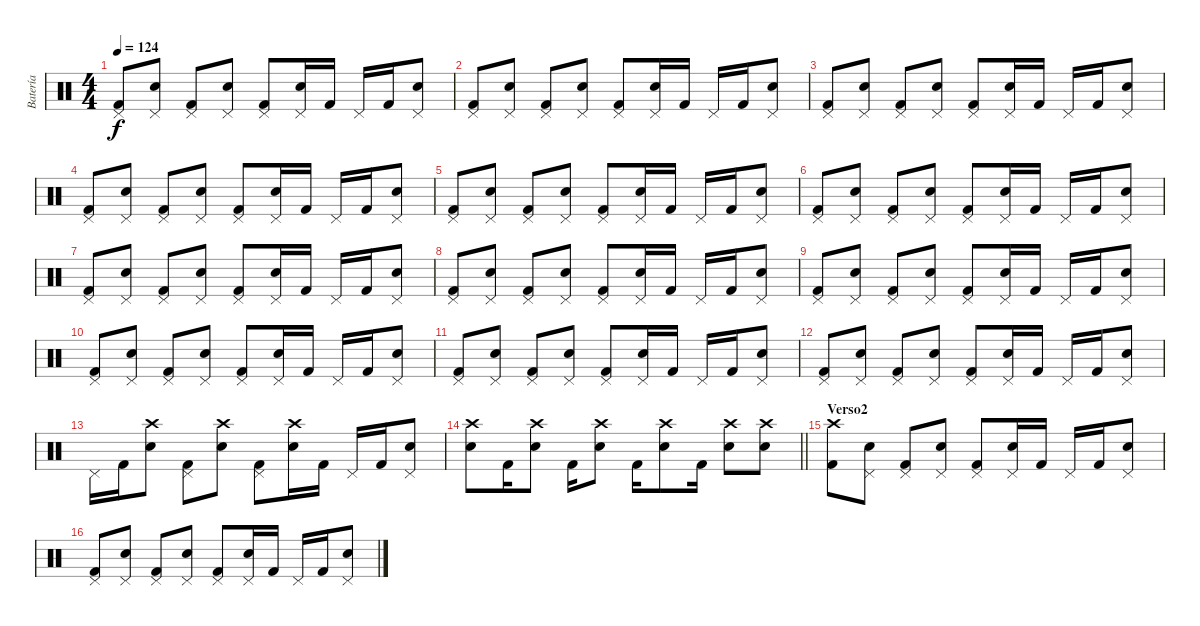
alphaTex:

\track ("Batería" "Batería") {instrument percussion}
\staff {score}
\articulation defaults
\ts (4 4)
\tempo 124
\clef neutral
\ks c
("Pedal Hi-Hat (hit)" "Kick (hit) 2").8{dy f} ("Pedal Hi-Hat (hit)" "Snare (hit) 2").8 ("Pedal Hi-Hat (hit)" "Kick (hit) 2").8 ("Pedal Hi-Hat (hit)" "Snare (hit) 2").8 ("Pedal Hi-Hat (hit)" "Kick (hit) 2").8 ("Pedal Hi-Hat (hit)" "Snare (hit) 2").16 "Kick (hit) 2".16 "Pedal Hi-Hat (hit)".16 "Kick (hit) 2".16 ("Pedal Hi-Hat (hit)" "Snare (hit) 2").8 |
("Pedal Hi-Hat (hit)" "Kick (hit) 2").8 ("Pedal Hi-Hat (hit)" "Snare (hit) 2").8 ("Pedal Hi-Hat (hit)" "Kick (hit) 2").8 ("Pedal Hi-Hat (hit)" "Snare (hit) 2").8 ("Pedal Hi-Hat (hit)" "Kick (hit) 2").8 ("Pedal Hi-Hat (hit)" "Snare (hit) 2").16 "Kick (hit) 2".16 "Pedal Hi-Hat (hit)".16 "Kick (hit) 2".16 ("Pedal Hi-Hat (hit)" "Snare (hit) 2").8 |
("Pedal Hi-Hat (hit)" "Kick (hit) 2").8 ("Pedal Hi-Hat (hit)" "Snare (hit) 2").8 ("Pedal Hi-Hat (hit)" "Kick (hit) 2").8 ("Pedal Hi-Hat (hit)" "Snare (hit) 2").8 ("Pedal Hi-Hat (hit)" "Kick (hit) 2").8 ("Pedal Hi-Hat (hit)" "Snare (hit) 2").16 "Kick (hit) 2".16 "Pedal Hi-Hat (hit)".16 "Kick (hit) 2".16 ("Pedal Hi-Hat (hit)" "Snare (hit) 2").8 |
("Pedal Hi-Hat (hit)" "Kick (hit) 2").8 ("Pedal Hi-Hat (hit)" "Snare (hit) 2").8 ("Pedal Hi-Hat (hit)" "Kick (hit) 2").8 ("Pedal Hi-Hat (hit)" "Snare (hit) 2").8 ("Pedal Hi-Hat (hit)" "Kick (hit) 2").8 ("Pedal Hi-Hat (hit)" "Snare (hit) 2").16 "Kick (hit) 2".16 "Pedal Hi-Hat (hit)".16 "Kick (hit) 2".16 ("Pedal Hi-Hat (hit)" "Snare (hit) 2").8 |
("Pedal Hi-Hat (hit)" "Kick (hit) 2").8 ("Pedal Hi-Hat (hit)" "Snare (hit) 2").8 ("Pedal Hi-Hat (hit)" "Kick (hit) 2").8 ("Pedal Hi-Hat (hit)" "Snare (hit) 2").8 ("Pedal Hi-Hat (hit)" "Kick (hit) 2").8 ("Pedal Hi-Hat (hit)" "Snare (hit) 2").16 "Kick (hit) 2".16 "Pedal Hi-Hat (hit)".16 "Kick (hit) 2".16 ("Pedal Hi-Hat (hit)" "Snare (hit) 2").8 |
("Pedal Hi-Hat (hit)" "Kick (hit) 2").8 ("Pedal Hi-Hat (hit)" "Snare (hit) 2").8 ("Pedal Hi-Hat (hit)" "Kick (hit) 2").8 ("Pedal Hi-Hat (hit)" "Snare (hit) 2").8 ("Pedal Hi-Hat (hit)" "Kick (hit) 2").8 ("Pedal Hi-Hat (hit)" "Snare (hit) 2").16 "Kick (hit) 2".16 "Pedal Hi-Hat (hit)".16 "Kick (hit) 2".16 ("Pedal Hi-Hat (hit)" "Snare (hit) 2").8 |
("Pedal Hi-Hat (hit)" "Kick (hit) 2").8 ("Pedal Hi-Hat (hit)" "Snare (hit) 2").8 ("Pedal Hi-Hat (hit)" "Kick (hit) 2").8 ("Pedal Hi-Hat (hit)" "Snare (hit) 2").8 ("Pedal Hi-Hat (hit)" "Kick (hit) 2").8 ("Pedal Hi-Hat (hit)" "Snare (hit) 2").16 "Kick (hit) 2".16 "Pedal Hi-Hat (hit)".16 "Kick (hit) 2".16 ("Pedal Hi-Hat (hit)" "Snare (hit) 2").8 |
("Pedal Hi-Hat (hit)" "Kick (hit) 2").8 ("Pedal Hi-Hat (hit)" "Snare (hit) 2").8 ("Pedal Hi-Hat (hit)" "Kick (hit) 2").8 ("Pedal Hi-Hat (hit)" "Snare (hit) 2").8 ("Pedal Hi-Hat (hit)" "Kick (hit) 2").8 ("Pedal Hi-Hat (hit)" "Snare (hit) 2").16 "Kick (hit) 2".16 "Pedal Hi-Hat (hit)".16 "Kick (hit) 2".16 ("Pedal Hi-Hat (hit)" "Snare (hit) 2").8 |
("Pedal Hi-Hat (hit)" "Kick (hit) 2").8 ("Pedal Hi-Hat (hit)" "Snare (hit) 2").8 ("Pedal Hi-Hat (hit)" "Kick (hit) 2").8 ("Pedal Hi-Hat (hit)" "Snare (hit) 2").8 ("Pedal Hi-Hat (hit)" "Kick (hit) 2").8 ("Pedal Hi-Hat (hit)" "Snare (hit) 2").16 "Kick (hit) 2".16 "Pedal Hi-Hat (hit)".16 "Kick (hit) 2".16 ("Pedal Hi-Hat (hit)" "Snare (hit) 2").8 |
("Pedal Hi-Hat (hit)" "Kick (hit) 2").8 ("Pedal Hi-Hat (hit)" "Snare (hit) 2").8 ("Pedal Hi-Hat (hit)" "Kick (hit) 2").8 ("Pedal Hi-Hat (hit)" "Snare (hit) 2").8 ("Pedal Hi-Hat (hit)" "Kick (hit) 2").8 ("Pedal Hi-Hat (hit)" "Snare (hit) 2").16 "Kick (hit) 2".16 "Pedal Hi-Hat (hit)".16 "Kick (hit) 2".16 ("Pedal Hi-Hat (hit)" "Snare (hit) 2").8 |
("Pedal Hi-Hat (hit)" "Kick (hit) 2").8 ("Pedal Hi-Hat (hit)" "Snare (hit) 2").8 ("Pedal Hi-Hat (hit)" "Kick (hit) 2").8 ("Pedal Hi-Hat (hit)" "Snare (hit) 2").8 ("Pedal Hi-Hat (hit)" "Kick (hit) 2").8 ("Pedal Hi-Hat (hit)" "Snare (hit) 2").16 "Kick (hit) 2".16 "Pedal Hi-Hat (hit)".16 "Kick (hit) 2".16 ("Pedal Hi-Hat (hit)" "Snare (hit) 2").8 |
("Pedal Hi-Hat (hit)" "Kick (hit) 2").8 ("Pedal Hi-Hat (hit)" "Snare (hit) 2").8 ("Pedal Hi-Hat (hit)" "Kick (hit) 2").8 ("Pedal Hi-Hat (hit)" "Snare (hit) 2").8 ("Pedal Hi-Hat (hit)" "Kick (hit) 2").8 ("Pedal Hi-Hat (hit)" "Snare (hit) 2").16 "Kick (hit) 2".16 "Pedal Hi-Hat (hit)".16 "Kick (hit) 2".16 ("Pedal Hi-Hat (hit)" "Snare (hit) 2").8 |
"Pedal Hi-Hat (hit)".16 "Kick (hit) 2".16 ("Crash high (hit)" "Snare (hit) 2").8 ("Pedal Hi-Hat (hit)" "Kick (hit) 2").8 ("Crash high (hit)" "Snare (hit) 2").8 ("Pedal Hi-Hat (hit)" "Kick (hit) 2").8 ("Crash high (hit)" "Snare (hit) 2").16 "Kick (hit) 2".16 "Pedal Hi-Hat (hit)".16 "Kick (hit) 2".16 ("Pedal Hi-Hat (hit)" "Snare (hit) 2").8 |
\barLineRight lightlight
("Crash high (hit)" "Snare (hit) 2").8 "Kick (hit) 2".16 ("Crash high (hit)" "Snare (hit) 2").8 "Kick (hit) 2".16 ("Crash high (hit)" "Snare (hit) 2").8 "Kick (hit) 2".16 ("Crash high (hit)" "Snare (hit) 2").8 "Kick (hit) 2".16 ("Crash high (hit)" "Snare (hit) 2").8 ("Crash high (hit)" "Snare (hit) 2").8 |
\section ("" "Verso2")
("Crash high (hit)" "Kick (hit) 2").8 ("Pedal Hi-Hat (hit)" "Snare (hit) 2").8 ("Pedal Hi-Hat (hit)" "Kick (hit) 2").8 ("Pedal Hi-Hat (hit)" "Snare (hit) 2").8 ("Pedal Hi-Hat (hit)" "Kick (hit) 2").8 ("Pedal Hi-Hat (hit)" "Snare (hit) 2").16 "Kick (hit) 2".16 "Pedal Hi-Hat (hit)".16 "Kick (hit) 2".16 ("Pedal Hi-Hat (hit)" "Snare (hit) 2").8 |
("Pedal Hi-Hat (hit)" "Kick (hit) 2").8 ("Pedal Hi-Hat (hit)" "Snare (hit) 2").8 ("Pedal Hi-Hat (hit)" "Kick (hit) 2").8 ("Pedal Hi-Hat (hit)" "Snare (hit) 2").8 ("Pedal Hi-Hat (hit)" "Kick (hit) 2").8 ("Pedal Hi-Hat (hit)" "Snare (hit) 2").16 "Kick (hit) 2".16 "Pedal Hi-Hat (hit)".16 "Kick (hit) 2".16 ("Pedal Hi-Hat (hit)" "Snare (hit) 2").8
